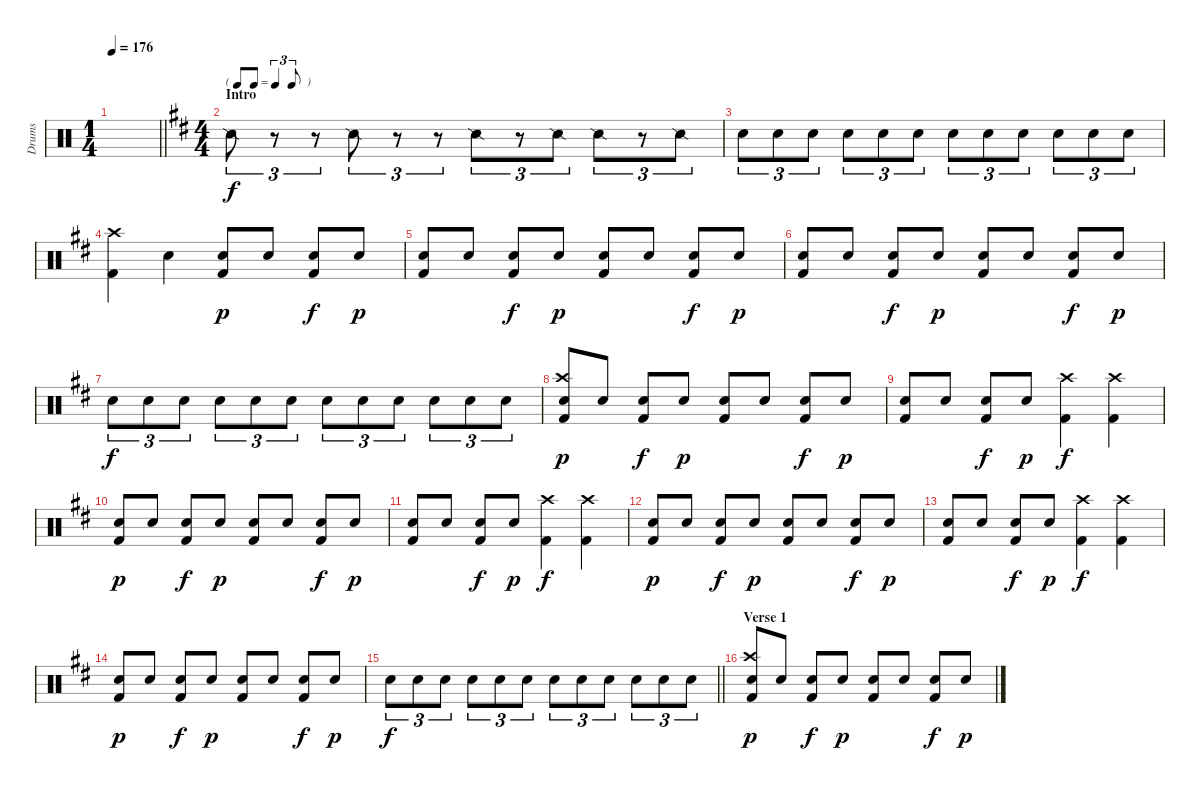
\track ("Drums" "Drums") {instrument percussion}
\staff {score}
\articulation defaults
\ts (1 4)
\tempo 176
\clef neutral
\barLineRight lightlight
\ks c
|
\ts (4 4)
\tf triplet8th
\section ("" "Intro")
\ks d "Snare (side stick) 2".8{tu (3 2)}
r.8{tu (3 2)} r.8{tu (3 2)} "Snare (side stick) 2".8{tu (3 2)} r.8{tu (3 2)} r.8{tu (3 2)} "Snare (side stick) 2".8{tu (3 2)} r.8{tu (3 2)} "Snare (side stick) 2".8{tu (3 2)} "Snare (side stick) 2".8{tu (3 2)} r.8{tu (3 2)} "Snare (side stick) 2".8{tu (3 2)} |
"Snare (hit) 2".8{tu (3 2)} "Snare (hit) 2".8{tu (3 2)} "Snare (hit) 2".8{tu (3 2)} "Snare (hit) 2".8{tu (3 2)} "Snare (hit) 2".8{tu (3 2)} "Snare (hit) 2".8{tu (3 2)} "Snare (hit) 2".8{tu (3 2)} "Snare (hit) 2".8{tu (3 2)} "Snare (hit) 2".8{tu (3 2)} "Snare (hit) 2".8{tu (3 2)} "Snare (hit) 2".8{tu (3 2)} "Snare (hit) 2".8{tu (3 2)} |
("Crash high (hit)" "Kick (hit) 2").4 "Snare (hit) 2".4 ("Snare (hit) 2" "Kick (hit) 2").8{dy p} "Snare (hit) 2".8 ("Snare (hit) 2" "Kick (hit) 2").8{dy f} "Snare (hit) 2".8{dy p} |
("Snare (hit) 2" "Kick (hit) 2").8 "Snare (hit) 2".8 ("Snare (hit) 2" "Kick (hit) 2").8{dy f} "Snare (hit) 2".8{dy p} ("Snare (hit) 2" "Kick (hit) 2").8 "Snare (hit) 2".8 ("Snare (hit) 2" "Kick (hit) 2").8{dy f} "Snare (hit) 2".8{dy p} |
("Snare (hit) 2" "Kick (hit) 2").8 "Snare (hit) 2".8 ("Snare (hit) 2" "Kick (hit) 2").8{dy f} "Snare (hit) 2".8{dy p} ("Snare (hit) 2" "Kick (hit) 2").8 "Snare (hit) 2".8 ("Snare (hit) 2" "Kick (hit) 2").8{dy f} "Snare (hit) 2".8{dy p} |
"Snare (hit) 2".8{tu (3 2) dy f} "Snare (hit) 2".8{tu (3 2)} "Snare (hit) 2".8{tu (3 2)} "Snare (hit) 2".8{tu (3 2)} "Snare (hit) 2".8{tu (3 2)} "Snare (hit) 2".8{tu (3 2)} "Snare (hit) 2".8{tu (3 2)} "Snare (hit) 2".8{tu (3 2)} "Snare (hit) 2".8{tu (3 2)} "Snare (hit) 2".8{tu (3 2)} "Snare (hit) 2".8{tu (3 2)} "Snare (hit) 2".8{tu (3 2)} |
("Crash high (hit)" "Snare (hit) 2" "Kick (hit) 2").8{dy p} "Snare (hit) 2".8 ("Snare (hit) 2" "Kick (hit) 2").8{dy f} "Snare (hit) 2".8{dy p} ("Snare (hit) 2" "Kick (hit) 2").8 "Snare (hit) 2".8 ("Snare (hit) 2" "Kick (hit) 2").8{dy f} "Snare (hit) 2".8{dy p} |
("Snare (hit) 2" "Kick (hit) 2").8 "Snare (hit) 2".8 ("Snare (hit) 2" "Kick (hit) 2").8{dy f} "Snare (hit) 2".8{dy p} ("Crash high (hit)" "Kick (hit) 2").4{dy f} ("Crash high (hit)" "Kick (hit) 2").4 |
("Snare (hit) 2" "Kick (hit) 2").8{dy p} "Snare (hit) 2".8 ("Snare (hit) 2" "Kick (hit) 2").8{dy f} "Snare (hit) 2".8{dy p} ("Snare (hit) 2" "Kick (hit) 2").8 "Snare (hit) 2".8 ("Snare (hit) 2" "Kick (hit) 2").8{dy f} "Snare (hit) 2".8{dy p} |
("Snare (hit) 2" "Kick (hit) 2").8 "Snare (hit) 2".8 ("Snare (hit) 2" "Kick (hit) 2").8{dy f} "Snare (hit) 2".8{dy p} ("Crash high (hit)" "Kick (hit) 2").4{dy f} ("Crash high (hit)" "Kick (hit) 2").4 |
("Snare (hit) 2" "Kick (hit) 2").8{dy p} "Snare (hit) 2".8 ("Snare (hit) 2" "Kick (hit) 2").8{dy f} "Snare (hit) 2".8{dy p} ("Snare (hit) 2" "Kick (hit) 2").8 "Snare (hit) 2".8 ("Snare (hit) 2" "Kick (hit) 2").8{dy f} "Snare (hit) 2".8{dy p} |
("Snare (hit) 2" "Kick (hit) 2").8 "Snare (hit) 2".8 ("Snare (hit) 2" "Kick (hit) 2").8{dy f} "Snare (hit) 2".8{dy p} ("Crash high (hit)" "Kick (hit) 2").4{dy f} ("Crash high (hit)" "Kick (hit) 2").4 |
("Snare (hit) 2" "Kick (hit) 2").8{dy p} "Snare (hit) 2".8 ("Snare (hit) 2" "Kick (hit) 2").8{dy f} "Snare (hit) 2".8{dy p} ("Snare (hit) 2" "Kick (hit) 2").8 "Snare (hit) 2".8 ("Snare (hit) 2" "Kick (hit) 2").8{dy f} "Snare (hit) 2".8{dy p} |
\barLineRight lightlight "Snare (hit) 2".8{tu (3 2) dy f} "Snare (hit) 2".8{tu (3 2)} "Snare (hit) 2".8{tu (3 2)} "Snare (hit) 2".8{tu (3 2)} "Snare (hit) 2".8{tu (3 2)} "Snare (hit) 2".8{tu (3 2)} "Snare (hit) 2".8{tu (3 2)} "Snare (hit) 2".8{tu (3 2)} "Snare (hit) 2".8{tu (3 2)} "Snare (hit) 2".8{tu (3 2)} "Snare (hit) 2".8{tu (3 2)} "Snare (hit) 2".8{tu (3 2)}
|
\section ("" "Verse 1")
("Crash high (hit)" "Snare (hit) 2" "Kick (hit) 2").8{dy p} "Snare (hit) 2".8 ("Snare (hit) 2" "Kick (hit) 2").8{dy f} "Snare (hit) 2".8{dy p} ("Snare (hit) 2" "Kick (hit) 2").8 "Snare (hit) 2".8 ("Snare (hit) 2" "Kick (hit) 2").8{dy f} "Snare (hit) 2".8{dy p}
